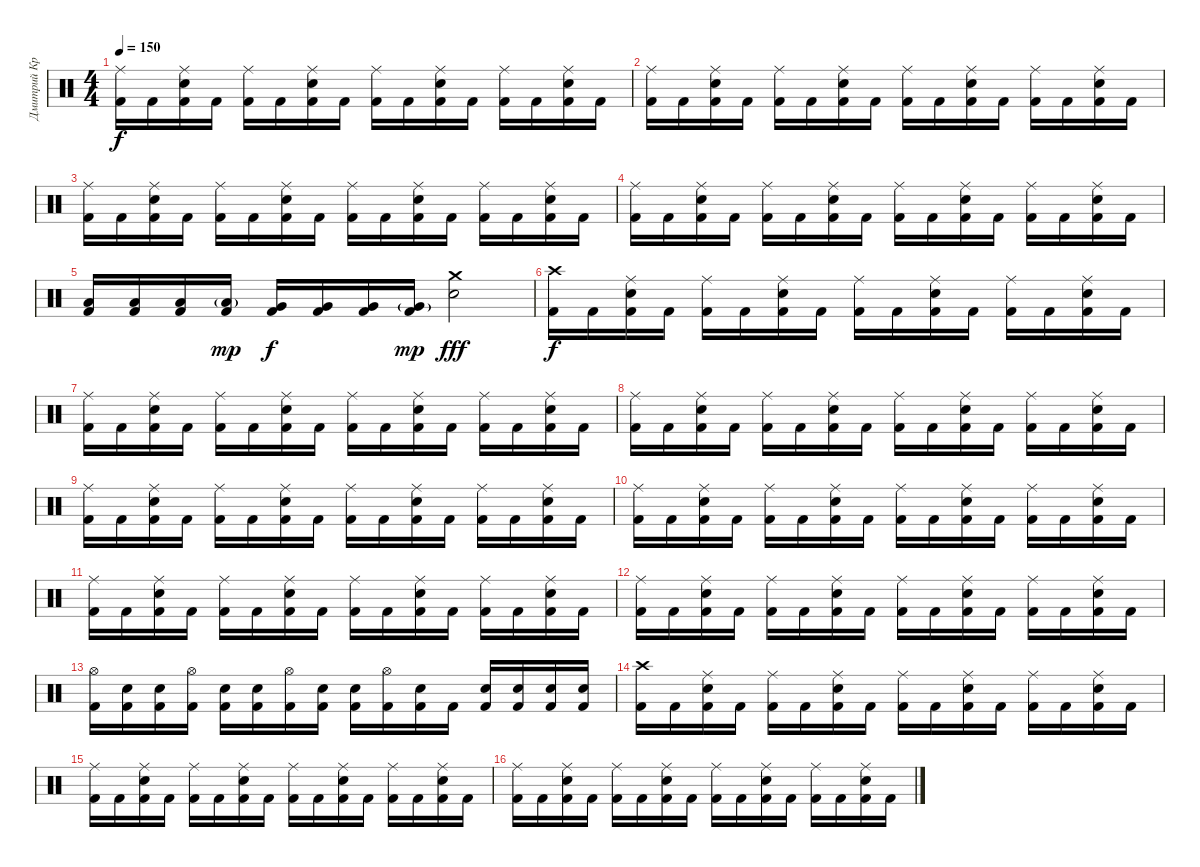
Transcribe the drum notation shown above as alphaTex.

\track ("Дмитрий Кривенков" "Дмитрий Кр") {instrument percussion}
\staff {score}
\articulation defaults
\ts (4 4)
\tempo 150
\clef neutral
\ks c
("Ride (middle)" "Kick (hit) 2").16{dy f} "Kick (hit) 2".16 ("Ride (middle)" "Electric Snare (hit)" "Kick (hit) 2").16 "Kick (hit) 2".16 ("Ride (middle)" "Kick (hit) 2").16 "Kick (hit) 2".16 ("Ride (middle)" "Electric Snare (hit)" "Kick (hit) 2").16 "Kick (hit) 2".16 ("Ride (middle)" "Kick (hit) 2").16 "Kick (hit) 2".16 ("Ride (middle)" "Electric Snare (hit)" "Kick (hit) 2").16 "Kick (hit) 2".16 ("Ride (middle)" "Kick (hit) 2").16 "Kick (hit) 2".16 ("Ride (middle)" "Electric Snare (hit)" "Kick (hit) 2").16 "Kick (hit) 2".16 |
("Ride (middle)" "Kick (hit) 2").16 "Kick (hit) 2".16 ("Ride (middle)" "Electric Snare (hit)" "Kick (hit) 2").16 "Kick (hit) 2".16 ("Ride (middle)" "Kick (hit) 2").16 "Kick (hit) 2".16 ("Ride (middle)" "Electric Snare (hit)" "Kick (hit) 2").16 "Kick (hit) 2".16 ("Ride (middle)" "Kick (hit) 2").16 "Kick (hit) 2".16 ("Ride (middle)" "Electric Snare (hit)" "Kick (hit) 2").16 "Kick (hit) 2".16 ("Ride (middle)" "Kick (hit) 2").16 "Kick (hit) 2".16 ("Ride (middle)" "Electric Snare (hit)" "Kick (hit) 2").16 "Kick (hit) 2".16 |
("Ride (middle)" "Kick (hit) 2").16 "Kick (hit) 2".16 ("Ride (middle)" "Electric Snare (hit)" "Kick (hit) 2").16 "Kick (hit) 2".16 ("Ride (middle)" "Kick (hit) 2").16 "Kick (hit) 2".16 ("Ride (middle)" "Electric Snare (hit)" "Kick (hit) 2").16 "Kick (hit) 2".16 ("Ride (middle)" "Kick (hit) 2").16 "Kick (hit) 2".16 ("Ride (middle)" "Electric Snare (hit)" "Kick (hit) 2").16 "Kick (hit) 2".16 ("Ride (middle)" "Kick (hit) 2").16 "Kick (hit) 2".16 ("Ride (middle)" "Electric Snare (hit)" "Kick (hit) 2").16 "Kick (hit) 2".16 |
("Ride (middle)" "Kick (hit) 2").16 "Kick (hit) 2".16 ("Ride (middle)" "Electric Snare (hit)" "Kick (hit) 2").16 "Kick (hit) 2".16 ("Ride (middle)" "Kick (hit) 2").16 "Kick (hit) 2".16 ("Ride (middle)" "Electric Snare (hit)" "Kick (hit) 2").16 "Kick (hit) 2".16 ("Ride (middle)" "Kick (hit) 2").16 "Kick (hit) 2".16 ("Ride (middle)" "Electric Snare (hit)" "Kick (hit) 2").16 "Kick (hit) 2".16 ("Ride (middle)" "Kick (hit) 2").16 "Kick (hit) 2".16 ("Ride (middle)" "Electric Snare (hit)" "Kick (hit) 2").16 "Kick (hit) 2".16 |
("Low Tom (hit)" "Kick (hit) 2").16 ("Low Tom (hit)" "Kick (hit) 2").16 ("Low Tom (hit)" "Kick (hit) 2").16 ("Low Tom (hit)"{g} "Kick (hit) 2").16{dy mp} ("Very Low Tom (hit)" "Kick (hit) 2").16{dy f} ("Very Low Tom (hit)" "Kick (hit) 2").16 ("Very Low Tom (hit)" "Kick (hit) 2").16 ("Very Low Tom (hit)"{g} "Kick (hit) 2").16{dy mp} ("Crash medium (hit)" "Electric Snare (hit)").2{dy fff} |
("Crash high (hit)" "Kick (hit) 2").16{dy f} "Kick (hit) 2".16 ("Ride (middle)" "Electric Snare (hit)" "Kick (hit) 2").16 "Kick (hit) 2".16 ("Ride (middle)" "Kick (hit) 2").16 "Kick (hit) 2".16 ("Ride (middle)" "Electric Snare (hit)" "Kick (hit) 2").16 "Kick (hit) 2".16 ("Ride (middle)" "Kick (hit) 2").16 "Kick (hit) 2".16 ("Ride (middle)" "Electric Snare (hit)" "Kick (hit) 2").16 "Kick (hit) 2".16 ("Ride (middle)" "Kick (hit) 2").16 "Kick (hit) 2".16 ("Ride (middle)" "Electric Snare (hit)" "Kick (hit) 2").16 "Kick (hit) 2".16 |
("Ride (middle)" "Kick (hit) 2").16 "Kick (hit) 2".16 ("Ride (middle)" "Electric Snare (hit)" "Kick (hit) 2").16 "Kick (hit) 2".16 ("Ride (middle)" "Kick (hit) 2").16 "Kick (hit) 2".16 ("Ride (middle)" "Electric Snare (hit)" "Kick (hit) 2").16 "Kick (hit) 2".16 ("Ride (middle)" "Kick (hit) 2").16 "Kick (hit) 2".16 ("Ride (middle)" "Electric Snare (hit)" "Kick (hit) 2").16 "Kick (hit) 2".16 ("Ride (middle)" "Kick (hit) 2").16 "Kick (hit) 2".16 ("Ride (middle)" "Electric Snare (hit)" "Kick (hit) 2").16 "Kick (hit) 2".16 |
("Ride (middle)" "Kick (hit) 2").16 "Kick (hit) 2".16 ("Ride (middle)" "Electric Snare (hit)" "Kick (hit) 2").16 "Kick (hit) 2".16 ("Ride (middle)" "Kick (hit) 2").16 "Kick (hit) 2".16 ("Ride (middle)" "Electric Snare (hit)" "Kick (hit) 2").16 "Kick (hit) 2".16 ("Ride (middle)" "Kick (hit) 2").16 "Kick (hit) 2".16 ("Ride (middle)" "Electric Snare (hit)" "Kick (hit) 2").16 "Kick (hit) 2".16 ("Ride (middle)" "Kick (hit) 2").16 "Kick (hit) 2".16 ("Ride (middle)" "Electric Snare (hit)" "Kick (hit) 2").16 "Kick (hit) 2".16 |
("Ride (middle)" "Kick (hit) 2").16 "Kick (hit) 2".16 ("Ride (middle)" "Electric Snare (hit)" "Kick (hit) 2").16 "Kick (hit) 2".16 ("Ride (middle)" "Kick (hit) 2").16 "Kick (hit) 2".16 ("Ride (middle)" "Electric Snare (hit)" "Kick (hit) 2").16 "Kick (hit) 2".16 ("Ride (middle)" "Kick (hit) 2").16 "Kick (hit) 2".16 ("Ride (middle)" "Electric Snare (hit)" "Kick (hit) 2").16 "Kick (hit) 2".16 ("Ride (middle)" "Kick (hit) 2").16 "Kick (hit) 2".16 ("Ride (middle)" "Electric Snare (hit)" "Kick (hit) 2").16 "Kick (hit) 2".16 |
("Ride (middle)" "Kick (hit) 2").16 "Kick (hit) 2".16 ("Ride (middle)" "Electric Snare (hit)" "Kick (hit) 2").16 "Kick (hit) 2".16 ("Ride (middle)" "Kick (hit) 2").16 "Kick (hit) 2".16 ("Ride (middle)" "Electric Snare (hit)" "Kick (hit) 2").16 "Kick (hit) 2".16 ("Ride (middle)" "Kick (hit) 2").16 "Kick (hit) 2".16 ("Ride (middle)" "Electric Snare (hit)" "Kick (hit) 2").16 "Kick (hit) 2".16 ("Ride (middle)" "Kick (hit) 2").16 "Kick (hit) 2".16 ("Ride (middle)" "Electric Snare (hit)" "Kick (hit) 2").16 "Kick (hit) 2".16 |
("Ride (middle)" "Kick (hit) 2").16 "Kick (hit) 2".16 ("Ride (middle)" "Electric Snare (hit)" "Kick (hit) 2").16 "Kick (hit) 2".16 ("Ride (middle)" "Kick (hit) 2").16 "Kick (hit) 2".16 ("Ride (middle)" "Electric Snare (hit)" "Kick (hit) 2").16 "Kick (hit) 2".16 ("Ride (middle)" "Kick (hit) 2").16 "Kick (hit) 2".16 ("Ride (middle)" "Electric Snare (hit)" "Kick (hit) 2").16 "Kick (hit) 2".16 ("Ride (middle)" "Kick (hit) 2").16 "Kick (hit) 2".16 ("Ride (middle)" "Electric Snare (hit)" "Kick (hit) 2").16 "Kick (hit) 2".16 |
("Ride (middle)" "Kick (hit) 2").16 "Kick (hit) 2".16 ("Ride (middle)" "Electric Snare (hit)" "Kick (hit) 2").16 "Kick (hit) 2".16 ("Ride (middle)" "Kick (hit) 2").16 "Kick (hit) 2".16 ("Ride (middle)" "Electric Snare (hit)" "Kick (hit) 2").16 "Kick (hit) 2".16 ("Ride (middle)" "Kick (hit) 2").16 "Kick (hit) 2".16 ("Ride (middle)" "Electric Snare (hit)" "Kick (hit) 2").16 "Kick (hit) 2".16 ("Ride (middle)" "Kick (hit) 2").16 "Kick (hit) 2".16 ("Ride (middle)" "Electric Snare (hit)" "Kick (hit) 2").16 "Kick (hit) 2".16 |
("Hi-Hat (open)" "Kick (hit) 2").16 ("Electric Snare (hit)" "Kick (hit) 2").16 ("Electric Snare (hit)" "Kick (hit) 2").16 ("Hi-Hat (open)" "Kick (hit) 2").16 ("Electric Snare (hit)" "Kick (hit) 2").16 ("Electric Snare (hit)" "Kick (hit) 2").16 ("Hi-Hat (open)" "Kick (hit) 2").16 ("Electric Snare (hit)" "Kick (hit) 2").16 ("Electric Snare (hit)" "Kick (hit) 2").16 ("Hi-Hat (open)" "Kick (hit) 2").16 ("Electric Snare (hit)" "Kick (hit) 2").16 "Kick (hit) 2".16 ("Electric Snare (hit)" "Kick (hit) 2").16 ("Electric Snare (hit)" "Kick (hit) 2").16 ("Electric Snare (hit)" "Kick (hit) 2").16 ("Electric Snare (hit)" "Kick (hit) 2").16 |
("Crash high (hit)" "Kick (hit) 2").16 "Kick (hit) 2".16 ("Ride (middle)" "Electric Snare (hit)" "Kick (hit) 2").16 "Kick (hit) 2".16 ("Ride (middle)" "Kick (hit) 2").16 "Kick (hit) 2".16 ("Ride (middle)" "Electric Snare (hit)" "Kick (hit) 2").16 "Kick (hit) 2".16 ("Ride (middle)" "Kick (hit) 2").16 "Kick (hit) 2".16 ("Ride (middle)" "Electric Snare (hit)" "Kick (hit) 2").16 "Kick (hit) 2".16 ("Ride (middle)" "Kick (hit) 2").16 "Kick (hit) 2".16 ("Ride (middle)" "Electric Snare (hit)" "Kick (hit) 2").16 "Kick (hit) 2".16 |
("Ride (middle)" "Kick (hit) 2").16 "Kick (hit) 2".16 ("Ride (middle)" "Electric Snare (hit)" "Kick (hit) 2").16 "Kick (hit) 2".16 ("Ride (middle)" "Kick (hit) 2").16 "Kick (hit) 2".16 ("Ride (middle)" "Electric Snare (hit)" "Kick (hit) 2").16 "Kick (hit) 2".16 ("Ride (middle)" "Kick (hit) 2").16 "Kick (hit) 2".16 ("Ride (middle)" "Electric Snare (hit)" "Kick (hit) 2").16 "Kick (hit) 2".16 ("Ride (middle)" "Kick (hit) 2").16 "Kick (hit) 2".16 ("Ride (middle)" "Electric Snare (hit)" "Kick (hit) 2").16 "Kick (hit) 2".16 |
("Ride (middle)" "Kick (hit) 2").16 "Kick (hit) 2".16 ("Ride (middle)" "Electric Snare (hit)" "Kick (hit) 2").16 "Kick (hit) 2".16 ("Ride (middle)" "Kick (hit) 2").16 "Kick (hit) 2".16 ("Ride (middle)" "Electric Snare (hit)" "Kick (hit) 2").16 "Kick (hit) 2".16 ("Ride (middle)" "Kick (hit) 2").16 "Kick (hit) 2".16 ("Ride (middle)" "Electric Snare (hit)" "Kick (hit) 2").16 "Kick (hit) 2".16 ("Ride (middle)" "Kick (hit) 2").16 "Kick (hit) 2".16 ("Ride (middle)" "Electric Snare (hit)" "Kick (hit) 2").16 "Kick (hit) 2".16
